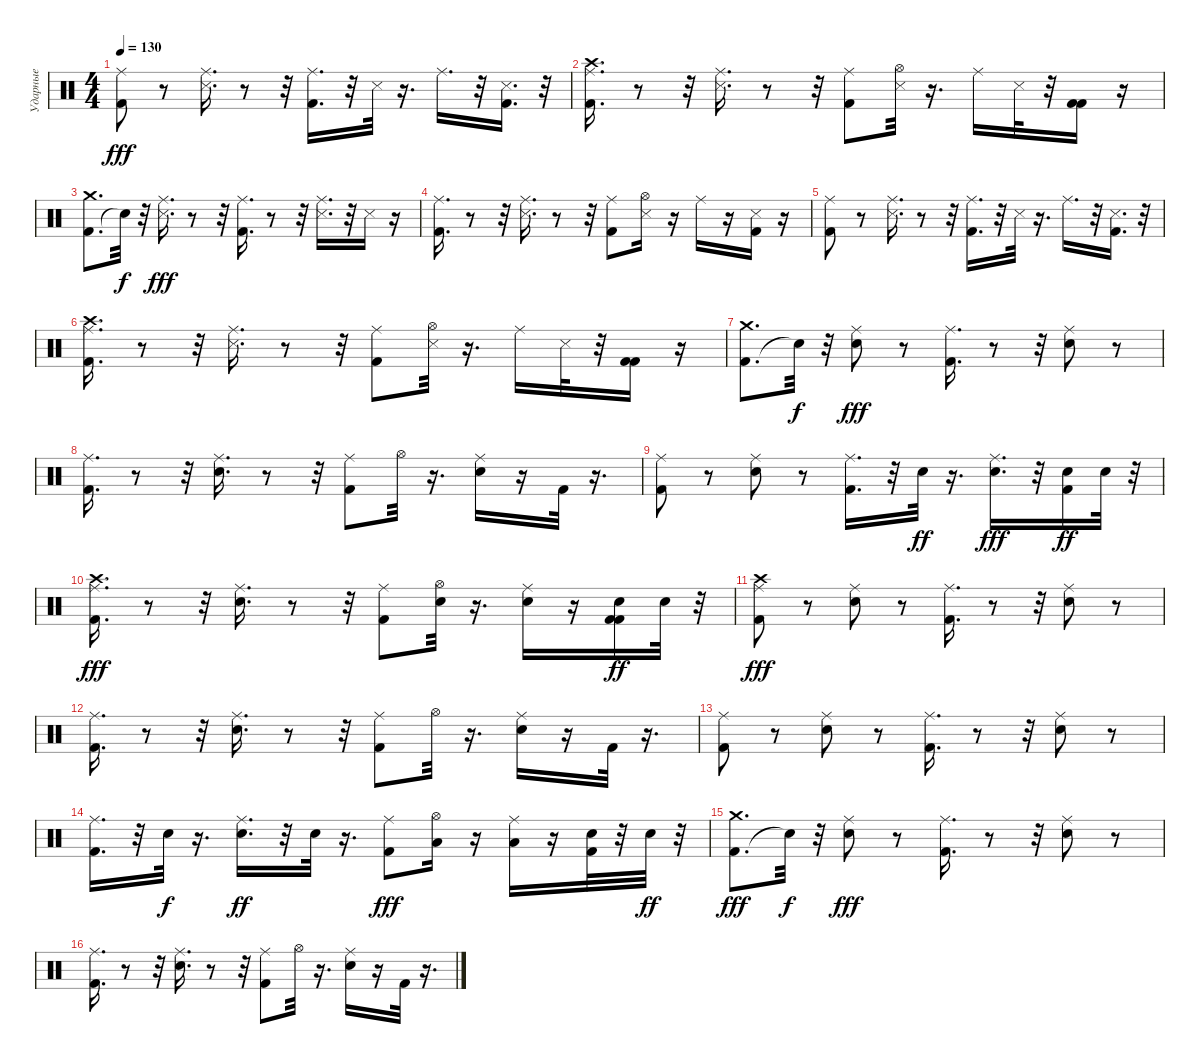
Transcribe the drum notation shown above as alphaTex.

\track ("Ударные" "Ударные") {instrument percussion}
\staff {score}
\articulation defaults
\ts (4 4)
\tempo 130
\clef neutral
\ks c
("Kick (hit) 2" "Ride (middle)").8{dy fff} r.8 ("Snare (side stick) 3" "Ride (middle)").16{d} r.8 r.32 ("Kick (hit) 2" "Ride (middle)").16{d} r.32 "Snare (side stick) 3".32 r.16{d} "Ride (middle)".16{d} r.32 ("Kick (hit) 2" "Snare (side stick) 3").16{d} r.32 |
("Crash high (hit)" "Ride (middle)" "Kick (hit) 2").16{d} r.8 r.32 ("Ride (middle)" "Snare (side stick) 3").16{d} r.8 r.32 ("Kick (hit) 2" "Ride (middle)").8 ("Hi-Hat (open)" "Snare (side stick) 3").32 r.16{d} "Ride (middle)".16 "Snare (side stick) 3".32 r.32 ("Kick (hit) 2" "Kick (hit) 2").16 r.16 |
("Kick (hit) 2" "Crash medium (hit)").8{d} "Snare (hit)"{t}.32{dy f} r.32 ("Snare (side stick) 3" "Ride (middle)").16{d dy fff} r.8 r.32 ("Kick (hit) 2" "Ride (middle)").16{d} r.8 r.32 ("Ride (middle)" "Snare (side stick) 3").16{d} r.32 "Snare (side stick) 3".16 r.16 |
("Ride (middle)" "Kick (hit) 2").16{d} r.8 r.32 ("Ride (middle)" "Snare (side stick) 3").16{d} r.8 r.32 ("Kick (hit) 2" "Ride (middle)").8 ("Snare (side stick) 3" "Hi-Hat (open)").16 r.16 "Ride (middle)".16 r.16 ("Kick (hit) 2" "Snare (side stick) 3").16 r.16 |
("Kick (hit) 2" "Ride (middle)").8 r.8 ("Snare (side stick) 3" "Ride (middle)").16{d} r.8 r.32 ("Kick (hit) 2" "Ride (middle)").16{d} r.32 "Snare (side stick) 3".32 r.16{d} "Ride (middle)".16{d} r.32 ("Kick (hit) 2" "Snare (side stick) 3").16{d} r.32 |
("Crash high (hit)" "Ride (middle)" "Kick (hit) 2").16{d} r.8 r.32 ("Ride (middle)" "Snare (side stick) 3").16{d} r.8 r.32 ("Kick (hit) 2" "Ride (middle)").8 ("Hi-Hat (open)" "Snare (side stick) 3").32 r.16{d} "Ride (middle)".16 "Snare (side stick) 3".32 r.32 ("Kick (hit) 2" "Kick (hit) 2").16 r.16 |
("Kick (hit) 2" "Crash medium (hit)").8{d} "Snare (hit)"{t}.32{dy f} r.32 ("Electric Snare (hit)" "Ride (middle)").8{dy fff} r.8 ("Kick (hit) 2" "Ride (middle)").16{d} r.8 r.32 ("Electric Snare (hit)" "Ride (middle)").8 r.8 |
("Ride (middle)" "Kick (hit) 2").16{d} r.8 r.32 ("Electric Snare (hit)" "Ride (middle)").16{d} r.8 r.32 ("Kick (hit) 2" "Ride (middle)").8 "Hi-Hat (open)".32 r.16{d} ("Electric Snare (hit)" "Ride (middle)").16 r.16 "Kick (hit) 2".32 r.16{d} |
("Kick (hit) 2" "Ride (middle)").8 r.8 ("Electric Snare (hit)" "Ride (middle)").8 r.8 ("Kick (hit) 2" "Ride (middle)").16{d} r.32 "Electric Snare (hit)".32{dy ff} r.16{d} ("Electric Snare (hit)" "Ride (middle)").16{d dy fff} r.32 ("Kick (hit) 2" "Electric Snare (hit)").16{dy ff} "Electric Snare (hit)".32 r.32 |
("Crash high (hit)" "Ride (middle)" "Kick (hit) 2").16{d dy fff} r.8 r.32 ("Electric Snare (hit)" "Ride (middle)").16{d} r.8 r.32 ("Kick (hit) 2" "Ride (middle)").8 ("Electric Snare (hit)" "Hi-Hat (open)").32 r.16{d} ("Electric Snare (hit)" "Ride (middle)").16 r.16 ("Kick (hit) 2" "Kick (hit) 2" "Electric Snare (hit)").16{dy ff} "Electric Snare (hit)".32 r.32 |
("Kick (hit) 2" "Crash high (hit)" "Ride (middle)").8{dy fff} r.8 ("Electric Snare (hit)" "Ride (middle)").8 r.8 ("Kick (hit) 2" "Ride (middle)").16{d} r.8 r.32 ("Electric Snare (hit)" "Ride (middle)").8 r.8 |
("Ride (middle)" "Kick (hit) 2").16{d} r.8 r.32 ("Electric Snare (hit)" "Ride (middle)").16{d} r.8 r.32 ("Kick (hit) 2" "Ride (middle)").8 "Hi-Hat (open)".32 r.16{d} ("Electric Snare (hit)" "Ride (middle)").16 r.16 "Kick (hit) 2".32 r.16{d} |
("Kick (hit) 2" "Ride (middle)").8 r.8 ("Electric Snare (hit)" "Ride (middle)").8 r.8 ("Kick (hit) 2" "Ride (middle)").16{d} r.8 r.32 ("Electric Snare (hit)" "Ride (middle)").8 r.8 |
("Ride (middle)" "Kick (hit) 2").16{d} r.32 "Electric Snare (hit)".32{dy f} r.16{d} ("Ride (middle)" "Electric Snare (hit)").16{d dy ff} r.32 "Electric Snare (hit)".32 r.16{d} ("Kick (hit) 2" "Ride (middle)").8{dy fff} ("Low Tom (hit)" "Hi-Hat (open)").16 r.16 ("Low Tom (hit)" "Ride (middle)").16 r.16 ("Kick (hit) 2" "Snare (hit) 2").32 r.32 "Snare (hit) 2".32{dy ff} r.32 |
("Kick (hit) 2" "Crash medium (hit)").8{d dy fff} "Snare (hit)"{t}.32{dy f} r.32 ("Electric Snare (hit)" "Ride (middle)").8{dy fff} r.8 ("Kick (hit) 2" "Ride (middle)").16{d} r.8 r.32 ("Electric Snare (hit)" "Ride (middle)").8 r.8 |
("Ride (middle)" "Kick (hit) 2").16{d} r.8 r.32 ("Electric Snare (hit)" "Ride (middle)").16{d} r.8 r.32 ("Kick (hit) 2" "Ride (middle)").8 "Hi-Hat (open)".32 r.16{d} ("Electric Snare (hit)" "Ride (middle)").16 r.16 "Kick (hit) 2".32 r.16{d}
